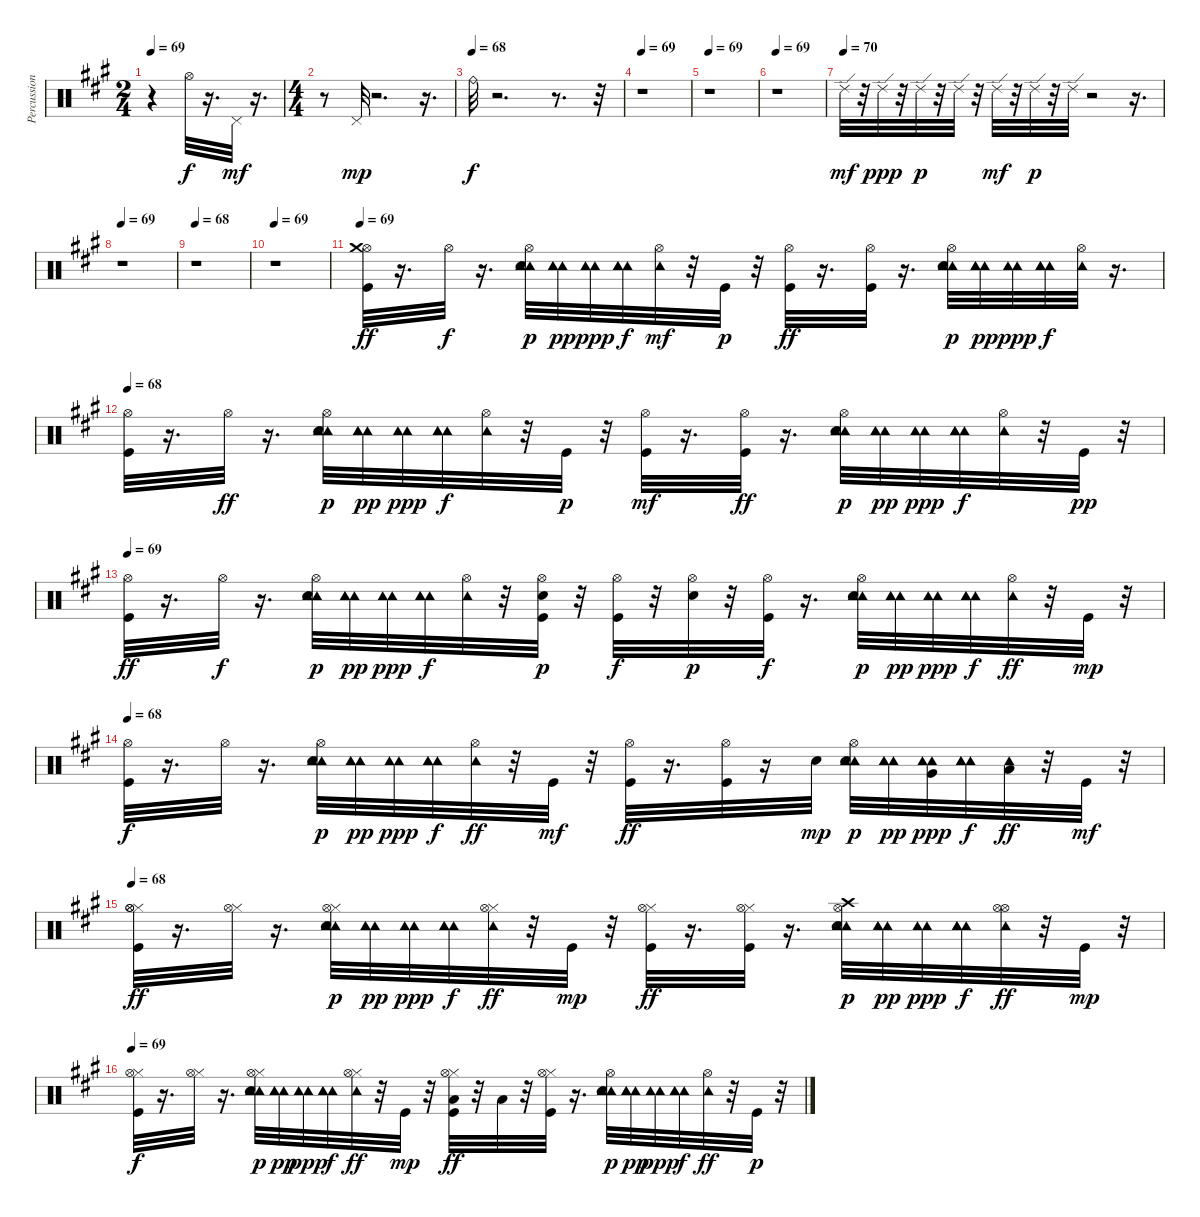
\track ("Percussions" "Percussion") {instrument percussion}
\staff {score}
\articulation defaults
\ts (2 4)
\tempo 69
\clef neutral
\ks f#minor
r.4{dy mf} "Hi-Hat (open)".32{dy f} r.16{d} "Pedal Hi-Hat (hit)".32{dy mf} r.16{d} |
\ts (4 4)
r.8 "Pedal Hi-Hat (hit)".32{dy mp} r.2{d} r.16{d} |
\tempo (68)
"Ride (bell)".32{dy f} r.2{d} r.8{d} r.32 |
\tempo 69
r.1 |
\tempo 69
r.1 |
\tempo 69
r.1 |
\tempo (70)
"Ride (edge) 2".32{dy mf} r.32 "Ride (edge) 2".32{dy ppp} r.32 "Ride (edge) 2".32{dy p} r.32 "Ride (edge) 2".32 r.32 "Ride (edge) 2".32{dy mf} r.32 "Ride (edge) 2".32{dy p} r.32 "Ride (edge) 2".32 r.2 r.16{d} |
\tempo 69
r.1 |
\tempo 68
r.1 |
\tempo 69
r.1 |
\tempo 69
("Kick (hit)" "Hi-Hat (open)" "Crash medium (hit)").32{dy ff} r.16{d} "Hi-Hat (open)".32{dy f} r.16{d} ("Tambourine (hit)" "Tambourine (hit)" "Electric Snare (hit)" "Hi-Hat (open)" "Tambourine (hit)").32{dy p} ("Tambourine (hit)" "Tambourine (hit)" "Tambourine (hit)").32{dy pp} ("Tambourine (hit)" "Tambourine (hit)").32{dy ppp} ("Tambourine (hit)" "Tambourine (hit)" "Tambourine (hit)").32{dy f} ("Tambourine (hit)" "Hi-Hat (open)").32{dy mf} r.32 "Kick (hit)".32{dy p} r.32 ("Kick (hit)" "Hi-Hat (open)").32{dy ff} r.16{d} ("Kick (hit)" "Hi-Hat (open)").32 r.16{d} ("Tambourine (hit)" "Hi-Hat (open)" "Tambourine (hit)" "Electric Snare (hit)" "Tambourine (hit)").32{dy p} ("Tambourine (hit)" "Tambourine (hit)" "Tambourine (hit)").32{dy pp} ("Tambourine (hit)" "Tambourine (hit)").32{dy ppp} ("Tambourine (hit)" "Tambourine (hit)" "Tambourine (hit)").32{dy f} ("Tambourine (hit)" "Hi-Hat (open)").32 r.16{d} |
\tempo 68
("Kick (hit)" "Hi-Hat (open)").32 r.16{d} "Hi-Hat (open)".32{dy ff} r.16{d} ("Tambourine (hit)" "Electric Snare (hit)" "Tambourine (hit)" "Hi-Hat (open)" "Tambourine (hit)").32{dy p} ("Tambourine (hit)" "Tambourine (hit)" "Tambourine (hit)").32{dy pp} ("Tambourine (hit)" "Tambourine (hit)").32{dy ppp} ("Tambourine (hit)" "Tambourine (hit)" "Tambourine (hit)").32{dy f} ("Tambourine (hit)" "Hi-Hat (open)").32 r.32 "Kick (hit)".32{dy p} r.32 ("Kick (hit)" "Hi-Hat (open)").32{dy mf} r.16{d} ("Hi-Hat (open)" "Kick (hit)").32{dy ff} r.16{d} ("Tambourine (hit)" "Hi-Hat (open)" "Electric Snare (hit)" "Tambourine (hit)" "Tambourine (hit)").32{dy p} ("Tambourine (hit)" "Tambourine (hit)" "Tambourine (hit)").32{dy pp} ("Tambourine (hit)" "Tambourine (hit)").32{dy ppp} ("Tambourine (hit)" "Tambourine (hit)" "Tambourine (hit)").32{dy f} ("Tambourine (hit)" "Hi-Hat (open)").32 r.32 "Kick (hit)".32{dy pp} r.32 |
\tempo 69
("Hi-Hat (open)" "Kick (hit)").32{dy ff} r.16{d} "Hi-Hat (open)".32{dy f} r.16{d} ("Tambourine (hit)" "Hi-Hat (open)" "Electric Snare (hit)" "Tambourine (hit)" "Tambourine (hit)").32{dy p} ("Tambourine (hit)" "Tambourine (hit)" "Tambourine (hit)").32{dy pp} ("Tambourine (hit)" "Tambourine (hit)").32{dy ppp} ("Tambourine (hit)" "Tambourine (hit)" "Tambourine (hit)").32{dy f} ("Tambourine (hit)" "Hi-Hat (open)").32 r.32 ("Hi-Hat (open)" "Kick (hit)" "Electric Snare (hit)").32{dy p} r.32 ("Hi-Hat (open)" "Kick (hit)").32{dy f} r.32 ("Electric Snare (hit)" "Hi-Hat (open)").32{dy p} r.32 ("Hi-Hat (open)" "Kick (hit)").32{dy f} r.16{d} ("Tambourine (hit)" "Tambourine (hit)" "Electric Snare (hit)" "Hi-Hat (open)" "Tambourine (hit)").32{dy p} ("Tambourine (hit)" "Tambourine (hit)" "Tambourine (hit)").32{dy pp} ("Tambourine (hit)" "Tambourine (hit)").32{dy ppp} ("Tambourine (hit)" "Tambourine (hit)" "Tambourine (hit)").32{dy f} ("Tambourine (hit)" "Hi-Hat (open)").32{dy ff} r.32 "Kick (hit)".32{dy mp} r.32 |
\tempo 68
("Kick (hit)" "Hi-Hat (open)").32{dy f} r.16{d} "Hi-Hat (open)".32 r.16{d} ("Tambourine (hit)" "Electric Snare (hit)" "Tambourine (hit)" "Hi-Hat (open)" "Tambourine (hit)").32{dy p} ("Tambourine (hit)" "Tambourine (hit)" "Tambourine (hit)").32{dy pp} ("Tambourine (hit)" "Tambourine (hit)").32{dy ppp} ("Tambourine (hit)" "Tambourine (hit)" "Tambourine (hit)").32{dy f} ("Tambourine (hit)" "Hi-Hat (open)").32{dy ff} r.32 "Kick (hit)".32{dy mf} r.32 ("Kick (hit)" "Hi-Hat (open)").32{dy ff} r.16{d} ("Kick (hit)" "Hi-Hat (open)").32 r.16 "Electric Snare (hit)".32{dy mp} ("Tambourine (hit)" "Hi-Hat (open)" "Electric Snare (hit)" "Tambourine (hit)" "Tambourine (hit)").32{dy p} ("Tambourine (hit)" "Tambourine (hit)" "Tambourine (hit)").32{dy pp} ("Tambourine (hit)" "Very Low Tom (hit)" "Tambourine (hit)").32{dy ppp} ("Tambourine (hit)" "Tambourine (hit)" "Tambourine (hit)").32{dy f} ("Tambourine (hit)" "Low Floor Tom (hit)").32{dy ff} r.32 "Kick (hit)".32{dy mf} r.32 |
\tempo 68
("Hi-Hat (closed)" "Kick (hit)" "Hi-Hat (open)" "Hi-Hat (open)").32{dy ff} r.16{d} ("Hi-Hat (closed)" "Hi-Hat (open)").32 r.16{d} ("Tambourine (hit)" "Hi-Hat (closed)" "Electric Snare (hit)" "Tambourine (hit)" "Tambourine (hit)" "Hi-Hat (open)").32{dy p} ("Tambourine (hit)" "Tambourine (hit)" "Tambourine (hit)").32{dy pp} ("Tambourine (hit)" "Tambourine (hit)").32{dy ppp} ("Tambourine (hit)" "Tambourine (hit)" "Tambourine (hit)").32{dy f} ("Tambourine (hit)" "Hi-Hat (closed)" "Hi-Hat (open)").32{dy ff} r.32 "Kick (hit)".32{dy mp} r.32 ("Hi-Hat (closed)" "Kick (hit)" "Hi-Hat (open)").32{dy ff} r.16{d} ("Hi-Hat (closed)" "Kick (hit)" "Hi-Hat (open)").32 r.16{d} ("Tambourine (hit)" "Crash high (hit)" "Tambourine (hit)" "Electric Snare (hit)" "Tambourine (hit)" "Hi-Hat (open)").32{dy p} ("Tambourine (hit)" "Tambourine (hit)" "Tambourine (hit)").32{dy pp} ("Tambourine (hit)" "Tambourine (hit)").32{dy ppp} ("Tambourine (hit)" "Tambourine (hit)" "Tambourine (hit)").32{dy f} ("Tambourine (hit)" "Hi-Hat (open)" "Hi-Hat (open)").32{dy ff} r.32 "Kick (hit)".32{dy mp} r.32 |
\tempo 69
("Hi-Hat (closed)" "Kick (hit)" "Hi-Hat (open)").32{dy f} r.16{d} ("Hi-Hat (closed)" "Hi-Hat (open)").32 r.16{d} ("Tambourine (hit)" "Electric Snare (hit)" "Tambourine (hit)" "Hi-Hat (closed)" "Tambourine (hit)" "Hi-Hat (open)").32{dy p} ("Tambourine (hit)" "Tambourine (hit)" "Tambourine (hit)").32{dy pp} ("Tambourine (hit)" "Tambourine (hit)").32{dy ppp} ("Tambourine (hit)" "Tambourine (hit)" "Tambourine (hit)").32{dy f} ("Tambourine (hit)" "Hi-Hat (closed)" "Hi-Hat (open)").32{dy ff} r.32 "Kick (hit)".32{dy mp} r.32 ("Low Tom (hit)" "Kick (hit)" "Hi-Hat (closed)" "Hi-Hat (open)").32{dy ff} r.32 "Low Tom (hit)".32 r.32 ("Hi-Hat (closed)" "Kick (hit)" "Hi-Hat (open)").32 r.16{d} ("Tambourine (hit)" "Hi-Hat (open)" "Tambourine (hit)" "Electric Snare (hit)" "Tambourine (hit)").32{dy p} ("Tambourine (hit)" "Tambourine (hit)" "Tambourine (hit)").32{dy pp} ("Tambourine (hit)" "Tambourine (hit)").32{dy ppp} ("Tambourine (hit)" "Tambourine (hit)" "Tambourine (hit)").32{dy f} ("Tambourine (hit)" "Hi-Hat (open)").32{dy ff} r.32 "Kick (hit)".32{dy p} r.32
